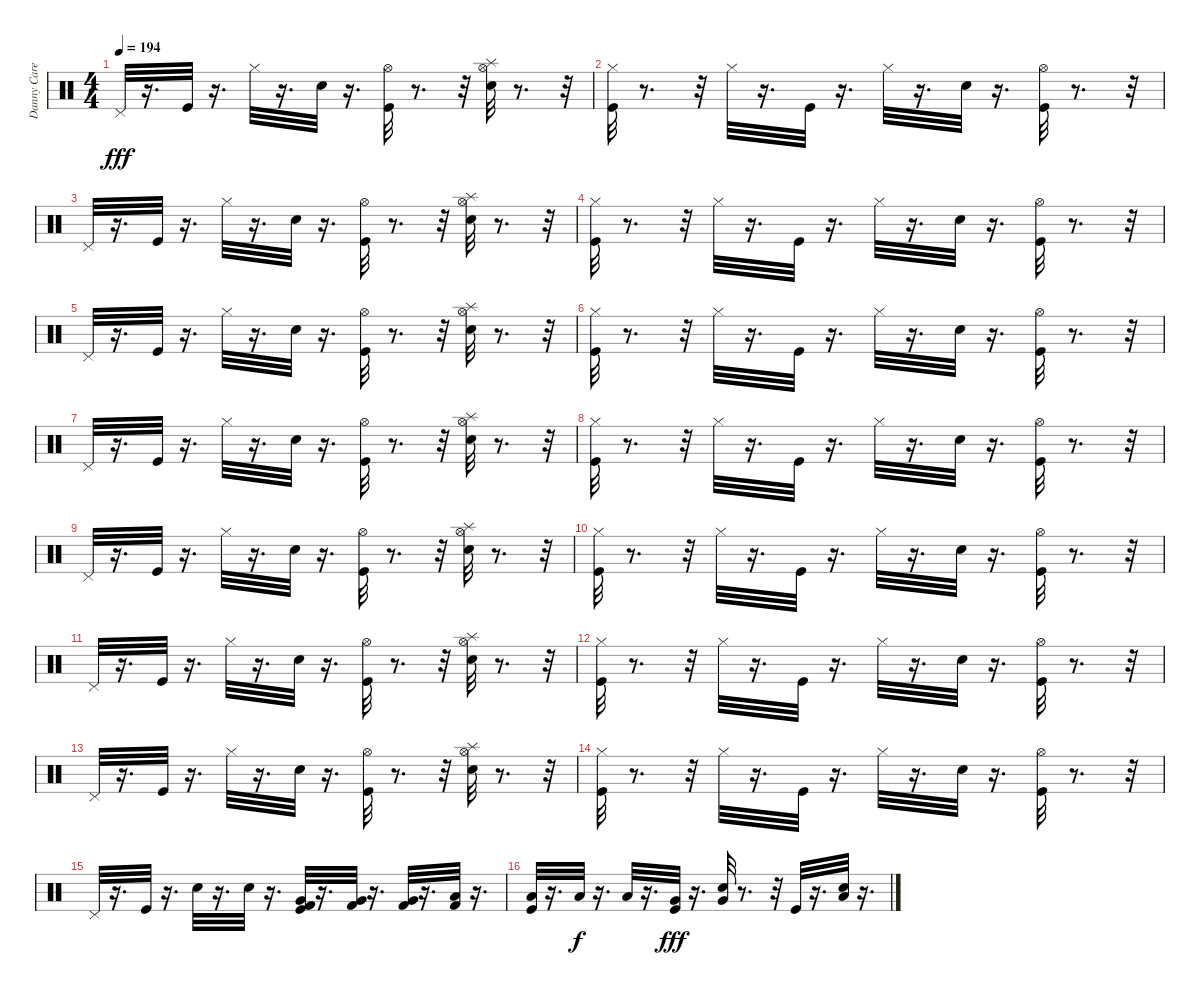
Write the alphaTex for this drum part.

\track ("Danny Carey" "Danny Care") {instrument percussion}
\staff {score}
\articulation defaults
\ts (4 4)
\tempo 194
\clef neutral
\ks c "Pedal Hi-Hat (hit)".32{dy fff}
r.16{d} "Kick (hit)".32 r.16{d} "Hi-Hat (closed)".32 r.16{d} "Snare (hit) 2".32 r.16{d} ("Hi-Hat (open)" "Kick (hit)").32 r.8{d} r.32 ("Hi-Hat (open)" "Snare (hit) 2" "Splash (hit)").32 r.8{d} r.32 |
("Hi-Hat (closed)" "Kick (hit)").32 r.8{d} r.32 "Hi-Hat (closed)".32 r.16{d} "Kick (hit)".32 r.16{d} "Hi-Hat (closed)".32 r.16{d} "Snare (hit) 2".32 r.16{d} ("Hi-Hat (open)" "Kick (hit)").32 r.8{d} r.32 |
"Pedal Hi-Hat (hit)".32 r.16{d} "Kick (hit)".32 r.16{d} "Hi-Hat (closed)".32 r.16{d} "Snare (hit) 2".32 r.16{d} ("Hi-Hat (open)" "Kick (hit)").32 r.8{d} r.32 ("Splash (hit)" "Hi-Hat (open)" "Snare (hit) 2").32 r.8{d} r.32 |
("Hi-Hat (closed)" "Kick (hit)").32 r.8{d} r.32 "Hi-Hat (closed)".32 r.16{d} "Kick (hit)".32 r.16{d} "Hi-Hat (closed)".32 r.16{d} "Snare (hit) 2".32 r.16{d} ("Hi-Hat (open)" "Kick (hit)").32 r.8{d} r.32 |
"Pedal Hi-Hat (hit)".32 r.16{d} "Kick (hit)".32 r.16{d} "Hi-Hat (closed)".32 r.16{d} "Snare (hit) 2".32 r.16{d} ("Hi-Hat (open)" "Kick (hit)").32 r.8{d} r.32 ("Splash (hit)" "Hi-Hat (open)" "Snare (hit) 2").32 r.8{d} r.32 |
("Hi-Hat (closed)" "Kick (hit)").32 r.8{d} r.32 "Hi-Hat (closed)".32 r.16{d} "Kick (hit)".32 r.16{d} "Hi-Hat (closed)".32 r.16{d} "Snare (hit) 2".32 r.16{d} ("Hi-Hat (open)" "Kick (hit)").32 r.8{d} r.32 |
"Pedal Hi-Hat (hit)".32 r.16{d} "Kick (hit)".32 r.16{d} "Hi-Hat (closed)".32 r.16{d} "Snare (hit) 2".32 r.16{d} ("Hi-Hat (open)" "Kick (hit)").32 r.8{d} r.32 ("Splash (hit)" "Hi-Hat (open)" "Snare (hit) 2").32 r.8{d} r.32 |
("Hi-Hat (closed)" "Kick (hit)").32 r.8{d} r.32 "Hi-Hat (closed)".32 r.16{d} "Kick (hit)".32 r.16{d} "Hi-Hat (closed)".32 r.16{d} "Snare (hit) 2".32 r.16{d} ("Hi-Hat (open)" "Kick (hit)").32 r.8{d} r.32 |
"Pedal Hi-Hat (hit)".32 r.16{d} "Kick (hit)".32 r.16{d} "Hi-Hat (closed)".32 r.16{d} "Snare (hit) 2".32 r.16{d} ("Hi-Hat (open)" "Kick (hit)").32 r.8{d} r.32 ("Splash (hit)" "Hi-Hat (open)" "Snare (hit) 2").32 r.8{d} r.32 |
("Hi-Hat (closed)" "Kick (hit)").32 r.8{d} r.32 "Hi-Hat (closed)".32 r.16{d} "Kick (hit)".32 r.16{d} "Hi-Hat (closed)".32 r.16{d} "Snare (hit) 2".32 r.16{d} ("Hi-Hat (open)" "Kick (hit)").32 r.8{d} r.32 |
"Pedal Hi-Hat (hit)".32 r.16{d} "Kick (hit)".32 r.16{d} "Hi-Hat (closed)".32 r.16{d} "Snare (hit) 2".32 r.16{d} ("Hi-Hat (open)" "Kick (hit)").32 r.8{d} r.32 ("Splash (hit)" "Hi-Hat (open)" "Snare (hit) 2").32 r.8{d} r.32 |
("Hi-Hat (closed)" "Kick (hit)").32 r.8{d} r.32 "Hi-Hat (closed)".32 r.16{d} "Kick (hit)".32 r.16{d} "Hi-Hat (closed)".32 r.16{d} "Snare (hit) 2".32 r.16{d} ("Hi-Hat (open)" "Kick (hit)").32 r.8{d} r.32 |
"Pedal Hi-Hat (hit)".32 r.16{d} "Kick (hit)".32 r.16{d} "Hi-Hat (closed)".32 r.16{d} "Snare (hit) 2".32 r.16{d} ("Hi-Hat (open)" "Kick (hit)").32 r.8{d} r.32 ("Splash (hit)" "Hi-Hat (open)" "Snare (hit) 2").32 r.8{d} r.32 |
("Hi-Hat (closed)" "Kick (hit)").32 r.8{d} r.32 "Hi-Hat (closed)".32 r.16{d} "Kick (hit)".32 r.16{d} "Hi-Hat (closed)".32 r.16{d} "Snare (hit) 2".32 r.16{d} ("Hi-Hat (open)" "Kick (hit)").32 r.8{d} r.32 |
"Pedal Hi-Hat (hit)".32 r.16{d} "Kick (hit)".32 r.16{d} "Snare (hit) 2".32 r.16{d} "Snare (hit) 2".32 r.16{d} ("Kick (hit) 2" "Very Low Tom (hit)" "Kick (hit)").32 r.16{d} ("Kick (hit) 2" "Very Low Tom (hit)").32 r.16{d} ("Kick (hit) 2" "Very Low Tom (hit)").32 r.16{d} ("Kick (hit) 2" "Low Floor Tom (hit)").32 r.16{d} |
("Low Floor Tom (hit)" "Kick (hit)").32 r.16{d} "Low Floor Tom (hit)".32{dy f} r.16{d} "Low Floor Tom (hit)".32 r.16{d} ("Very Low Tom (hit)" "Kick (hit)").32{dy fff} r.16{d} ("Very Low Tom (hit)" "Snare (hit) 2").32 r.8{d} r.32 "Kick (hit)".32 r.16{d} ("Low Tom (hit)" "Snare (hit) 2").32 r.16{d}
